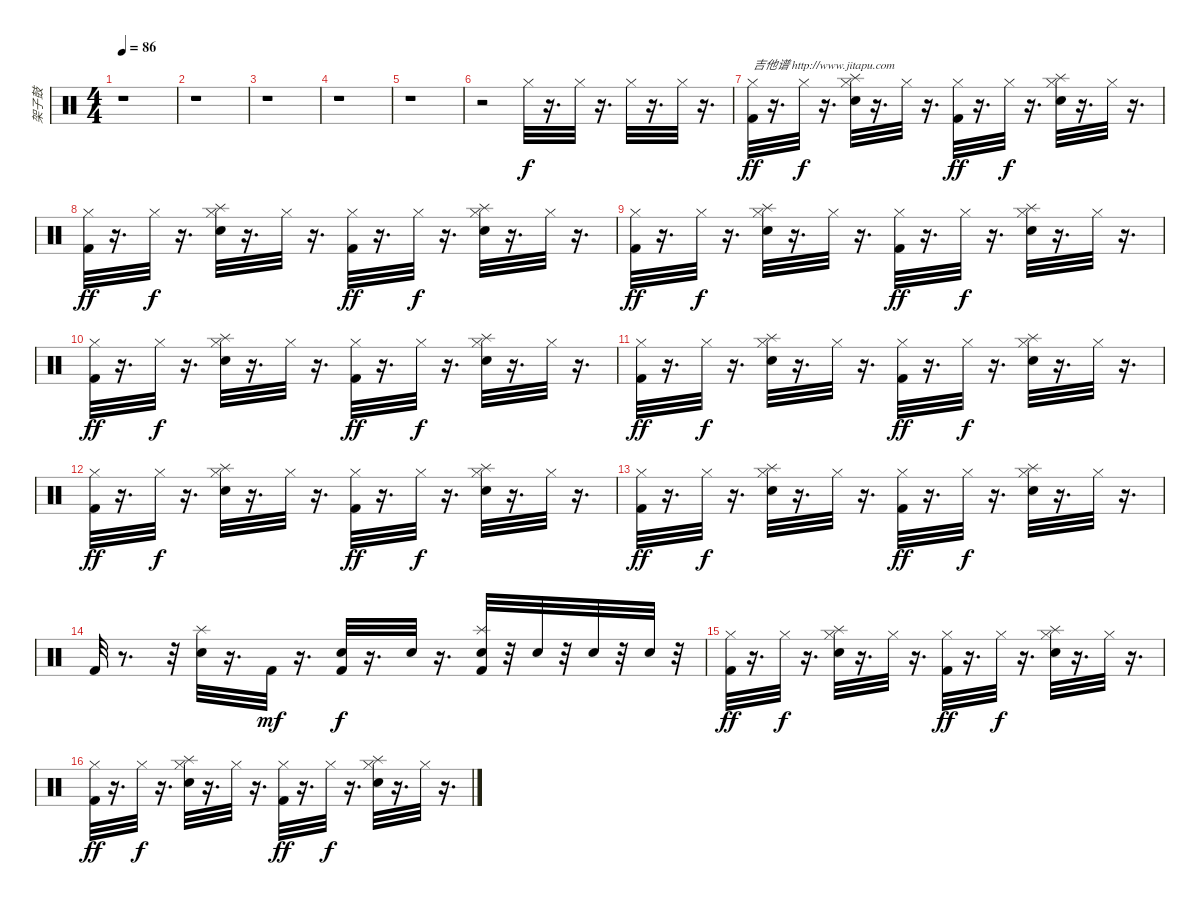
\track ("架子鼓" "架子鼓") {instrument percussion}
\staff {score}
\articulation defaults
\ts (4 4)
\tempo 86
\clef neutral
\ks c
r.1{dy f} |
r.1 |
r.1 |
r.1 |
r.1 |
r.2 "Hi-Hat (closed)".32 r.16{d} "Hi-Hat (closed)".32 r.16{d} "Hi-Hat (closed)".32 r.16{d} "Hi-Hat (closed)".32 r.16{d} |
("Hi-Hat (closed)" "Kick (hit) 2").32{txt "吉他谱 http://www.jitapu.com" dy ff} r.16{d} "Hi-Hat (closed)".32{dy f} r.16{d} ("Splash (hit)" "Hi-Hat (closed)" "Electric Snare (hit)").32 r.16{d} "Hi-Hat (closed)".32 r.16{d} ("Hi-Hat (closed)" "Kick (hit) 2").32{dy ff} r.16{d} "Hi-Hat (closed)".32{dy f} r.16{d} ("Splash (hit)" "Hi-Hat (closed)" "Electric Snare (hit)").32 r.16{d} "Hi-Hat (closed)".32 r.16{d} |
("Hi-Hat (closed)" "Kick (hit) 2").32{dy ff} r.16{d} "Hi-Hat (closed)".32{dy f} r.16{d} ("Splash (hit)" "Hi-Hat (closed)" "Electric Snare (hit)").32 r.16{d} "Hi-Hat (closed)".32 r.16{d} ("Hi-Hat (closed)" "Kick (hit) 2").32{dy ff} r.16{d} "Hi-Hat (closed)".32{dy f} r.16{d} ("Splash (hit)" "Hi-Hat (closed)" "Electric Snare (hit)").32 r.16{d} "Hi-Hat (closed)".32 r.16{d} |
("Hi-Hat (closed)" "Kick (hit) 2").32{dy ff} r.16{d} "Hi-Hat (closed)".32{dy f} r.16{d} ("Splash (hit)" "Hi-Hat (closed)" "Electric Snare (hit)").32 r.16{d} "Hi-Hat (closed)".32 r.16{d} ("Hi-Hat (closed)" "Kick (hit) 2").32{dy ff} r.16{d} "Hi-Hat (closed)".32{dy f} r.16{d} ("Splash (hit)" "Hi-Hat (closed)" "Electric Snare (hit)").32 r.16{d} "Hi-Hat (closed)".32 r.16{d} |
("Hi-Hat (closed)" "Kick (hit) 2").32{dy ff} r.16{d} "Hi-Hat (closed)".32{dy f} r.16{d} ("Splash (hit)" "Hi-Hat (closed)" "Electric Snare (hit)").32 r.16{d} "Hi-Hat (closed)".32 r.16{d} ("Hi-Hat (closed)" "Kick (hit) 2").32{dy ff} r.16{d} "Hi-Hat (closed)".32{dy f} r.16{d} ("Splash (hit)" "Hi-Hat (closed)" "Electric Snare (hit)").32 r.16{d} "Hi-Hat (closed)".32 r.16{d} |
("Hi-Hat (closed)" "Kick (hit) 2").32{dy ff} r.16{d} "Hi-Hat (closed)".32{dy f} r.16{d} ("Splash (hit)" "Hi-Hat (closed)" "Electric Snare (hit)").32 r.16{d} "Hi-Hat (closed)".32 r.16{d} ("Hi-Hat (closed)" "Kick (hit) 2").32{dy ff} r.16{d} "Hi-Hat (closed)".32{dy f} r.16{d} ("Splash (hit)" "Hi-Hat (closed)" "Electric Snare (hit)").32 r.16{d} "Hi-Hat (closed)".32 r.16{d} |
("Hi-Hat (closed)" "Kick (hit) 2").32{dy ff} r.16{d} "Hi-Hat (closed)".32{dy f} r.16{d} ("Splash (hit)" "Hi-Hat (closed)" "Electric Snare (hit)").32 r.16{d} "Hi-Hat (closed)".32 r.16{d} ("Hi-Hat (closed)" "Kick (hit) 2").32{dy ff} r.16{d} "Hi-Hat (closed)".32{dy f} r.16{d} ("Splash (hit)" "Hi-Hat (closed)" "Electric Snare (hit)").32 r.16{d} "Hi-Hat (closed)".32 r.16{d} |
("Hi-Hat (closed)" "Kick (hit) 2").32{dy ff} r.16{d} "Hi-Hat (closed)".32{dy f} r.16{d} ("Splash (hit)" "Hi-Hat (closed)" "Electric Snare (hit)").32 r.16{d} "Hi-Hat (closed)".32 r.16{d} ("Hi-Hat (closed)" "Kick (hit) 2").32{dy ff} r.16{d} "Hi-Hat (closed)".32{dy f} r.16{d} ("Splash (hit)" "Hi-Hat (closed)" "Electric Snare (hit)").32 r.16{d} "Hi-Hat (closed)".32 r.16{d} |
"Kick (hit) 2".32 r.8{d} r.32 ("Splash (hit)" "Electric Snare (hit)").32 r.16{d} "Kick (hit) 2".32{dy mf} r.16{d} ("Electric Snare (hit)" "Kick (hit) 2").32{dy f} r.16{d} "Electric Snare (hit)".32 r.16{d} ("Splash (hit)" "Electric Snare (hit)" "Kick (hit) 2").32 r.32 "Electric Snare (hit)".32 r.32 "Electric Snare (hit)".32 r.32 "Electric Snare (hit)".32 r.32 |
("Hi-Hat (closed)" "Kick (hit) 2").32{dy ff} r.16{d} "Hi-Hat (closed)".32{dy f} r.16{d} ("Splash (hit)" "Hi-Hat (closed)" "Electric Snare (hit)").32 r.16{d} "Hi-Hat (closed)".32 r.16{d} ("Hi-Hat (closed)" "Kick (hit) 2").32{dy ff} r.16{d} "Hi-Hat (closed)".32{dy f} r.16{d} ("Splash (hit)" "Hi-Hat (closed)" "Electric Snare (hit)").32 r.16{d} "Hi-Hat (closed)".32 r.16{d} |
("Hi-Hat (closed)" "Kick (hit) 2").32{dy ff} r.16{d} "Hi-Hat (closed)".32{dy f} r.16{d} ("Splash (hit)" "Hi-Hat (closed)" "Electric Snare (hit)").32 r.16{d} "Hi-Hat (closed)".32 r.16{d} ("Hi-Hat (closed)" "Kick (hit) 2").32{dy ff} r.16{d} "Hi-Hat (closed)".32{dy f} r.16{d} ("Splash (hit)" "Hi-Hat (closed)" "Electric Snare (hit)").32 r.16{d} "Hi-Hat (closed)".32 r.16{d}
